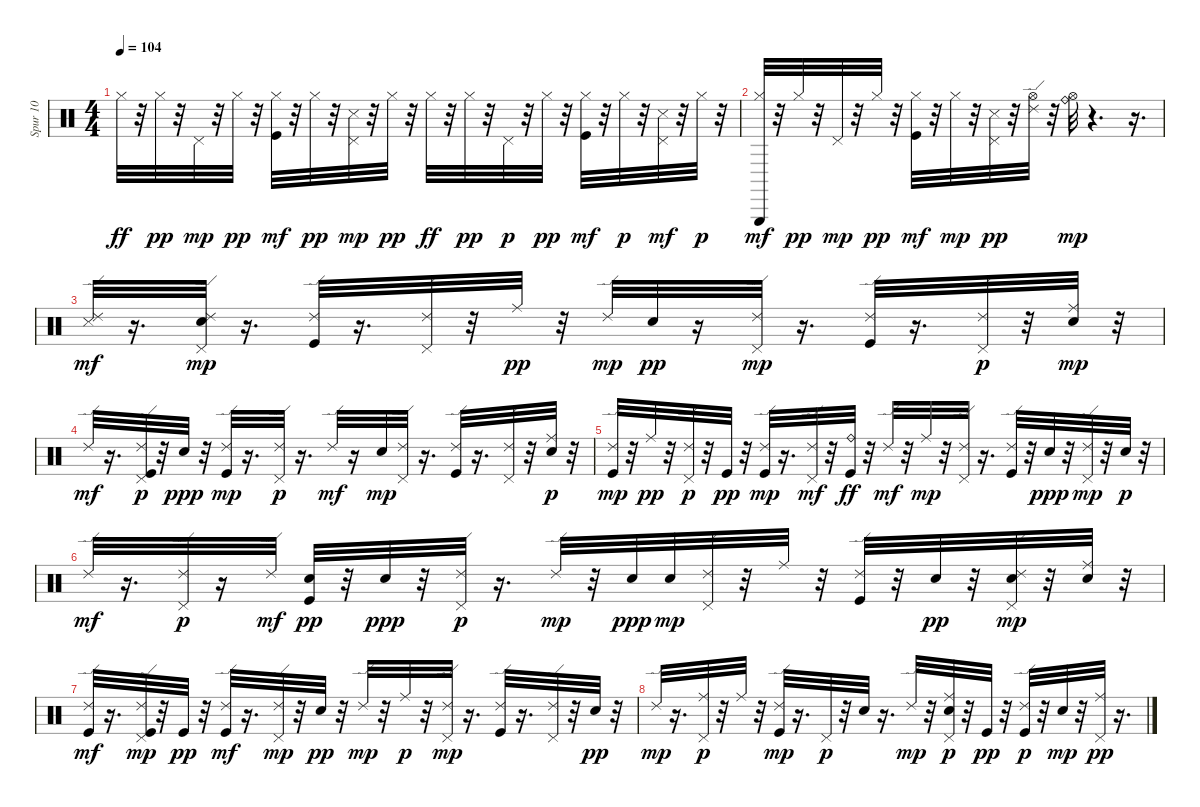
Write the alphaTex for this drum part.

\track ("Spur 10" "Spur 10") {instrument percussion}
\staff {score}
\articulation defaults
\ts (4 4)
\tempo 104
\clef neutral
\ks c "Hi-Hat (closed)".32{dy ff}
r.32 "Hi-Hat (closed)".32{dy pp} r.32 "Pedal Hi-Hat (hit)".32{dy mp} r.32 "Hi-Hat (closed)".32{dy pp} r.32 ("Kick (hit)" "Hi-Hat (closed)").32{dy mf} r.32 "Hi-Hat (closed)".32{dy pp} r.32 ("Snare (side stick) 3" "Pedal Hi-Hat (hit)").32{dy mp} r.32 "Hi-Hat (closed)".32{dy pp} r.32 "Hi-Hat (closed)".32{dy ff} r.32 "Hi-Hat (closed)".32{dy pp} r.32 "Pedal Hi-Hat (hit)".32{dy p} r.32 "Hi-Hat (closed)".32{dy pp} r.32 ("Kick (hit)" "Hi-Hat (closed)").32{dy mf} r.32 "Hi-Hat (closed)".32{dy p} r.32 ("Snare (side stick) 3" "Pedal Hi-Hat (hit)").32{dy mf} r.32 "Hi-Hat (closed)".32{dy p} r.32 |
("Triangle (hit)" "Hi-Hat (closed)").32{dy mf} r.32 "Hi-Hat (closed)".32{dy pp} r.32 "Pedal Hi-Hat (hit)".32{dy mp} r.32 "Hi-Hat (closed)".32{dy pp} r.32 ("Kick (hit)" "Hi-Hat (closed)").32{dy mf} r.32 "Hi-Hat (closed)".32{dy mp} r.32 ("Snare (side stick) 3" "Pedal Hi-Hat (hit)").32{dy pp} r.32 ("Hi-Hat (open)" "Ride (edge) 2").32 r.32 ("Hi-Hat (open)" "Ride (bell)").32{dy mp} r.4{d} r.16{d} |
("Ride (edge) 2" "Snare (side stick) 3").32{dy mf} r.16{d} ("Electric Snare (hit)" "Pedal Hi-Hat (hit)" "Ride (edge) 2").32{dy mp} r.16{d} ("Kick (hit)" "Ride (edge) 2").32 r.16{d} ("Pedal Hi-Hat (hit)" "Ride (edge) 2").32 r.32 "Ride (middle)".32{dy pp} r.32 "Ride (edge) 2".32{dy mp} "Electric Snare (hit)".32{dy pp} r.16 ("Pedal Hi-Hat (hit)" "Ride (edge) 2").32{dy mp} r.16{d} ("Kick (hit)" "Ride (edge) 2").32 r.16{d} ("Pedal Hi-Hat (hit)" "Ride (edge) 2").32{dy p} r.32 ("Electric Snare (hit)" "Ride (middle)").32{dy mp} r.32 |
"Ride (edge) 2".32{dy mf} r.16{d} ("Kick (hit)" "Pedal Hi-Hat (hit)" "Ride (edge) 2").32{dy p} r.32 "Electric Snare (hit)".32{dy ppp} r.32 ("Kick (hit)" "Ride (edge) 2").32{dy mp} r.16{d} ("Pedal Hi-Hat (hit)" "Ride (edge) 2").32{dy p} r.16{d} "Ride (edge) 2".32{dy mf} r.16 "Electric Snare (hit)".32{dy mp} ("Pedal Hi-Hat (hit)" "Ride (edge) 2").32 r.16{d} ("Kick (hit)" "Ride (edge) 2").32 r.16{d} ("Pedal Hi-Hat (hit)" "Ride (edge) 2").32 r.32 ("Electric Snare (hit)" "Ride (middle)").32{dy p} r.32 |
("Kick (hit)" "Ride (edge) 2").32{dy mp} r.32 "Ride (middle)".32{dy pp} r.32 ("Ride (edge) 2" "Pedal Hi-Hat (hit)").32{dy p} r.32 "Kick (hit)".32{dy pp} r.32 ("Kick (hit)" "Ride (edge) 2").32{dy mp} r.16{d} ("Pedal Hi-Hat (hit)" "Ride (edge) 2").32{dy mf} r.32 ("Kick (hit)" "Ride (bell)").32{dy ff} r.32 "Ride (edge) 2".32{dy mf} r.32 "Ride (middle)".32{dy mp} r.32 ("Pedal Hi-Hat (hit)" "Ride (edge) 2").32 r.16{d} ("Kick (hit)" "Ride (edge) 2").32 r.32 "Electric Snare (hit)".32{dy ppp} r.32 ("Ride (edge) 2" "Pedal Hi-Hat (hit)").32{dy mp} r.32 "Electric Snare (hit)".32{dy p} r.32 |
"Ride (edge) 2".32{dy mf} r.16{d} ("Ride (edge) 2" "Pedal Hi-Hat (hit)").32{dy p} r.16 "Ride (edge) 2".32{dy mf} ("Kick (hit)" "Electric Snare (hit)").32{dy pp} r.32 "Electric Snare (hit)".32{dy ppp} r.32 ("Ride (edge) 2" "Pedal Hi-Hat (hit)").32{dy p} r.16{d} "Ride (edge) 2".32{dy mp} r.32 "Electric Snare (hit)".32{dy ppp} "Electric Snare (hit)".32{dy mp} ("Pedal Hi-Hat (hit)" "Ride (edge) 2").32 r.32 "Ride (middle)".32 r.32 ("Kick (hit)" "Ride (edge) 2").32 r.32 "Electric Snare (hit)".32{dy pp} r.32 ("Electric Snare (hit)" "Pedal Hi-Hat (hit)" "Ride (edge) 2").32{dy mp} r.32 ("Electric Snare (hit)" "Ride (middle)").32 r.32 |
("Kick (hit)" "Ride (edge) 2").32{dy mf} r.16{d} ("Ride (edge) 2" "Pedal Hi-Hat (hit)" "Kick (hit)").32{dy mp} r.32 "Kick (hit)".32{dy pp} r.32 ("Kick (hit)" "Ride (edge) 2").32{dy mf} r.16{d} ("Pedal Hi-Hat (hit)" "Ride (edge) 2").32{dy mp} r.32 "Electric Snare (hit)".32{dy pp} r.32 "Ride (edge) 2".32{dy mp} r.32 "Ride (middle)".32{dy p} r.32 ("Pedal Hi-Hat (hit)" "Ride (edge) 2").32{dy mp} r.16{d} ("Kick (hit)" "Ride (edge) 2").32 r.16{d} ("Pedal Hi-Hat (hit)" "Ride (edge) 2").32 r.32 "Electric Snare (hit)".32{dy pp} r.32 |
"Ride (edge) 2".32{dy mp} r.16{d} ("Pedal Hi-Hat (hit)" "Ride (middle)").32{dy p} r.32 "Ride (middle)".32 r.32 ("Kick (hit)" "Ride (edge) 2").32{dy mp} r.16{d} "Pedal Hi-Hat (hit)".32{dy p} r.32 "Electric Snare (hit)".32 r.16{d} "Ride (edge) 2".32{dy mp} r.32 ("Ride (middle)" "Pedal Hi-Hat (hit)" "Electric Snare (hit)").32{dy p} r.32 "Kick (hit)".32{dy pp} r.32 ("Kick (hit)" "Ride (edge) 2").32{dy p} r.32 "Electric Snare (hit)".32{dy mp} r.32 ("Ride (middle)" "Pedal Hi-Hat (hit)").32{dy pp} r.16{d}
